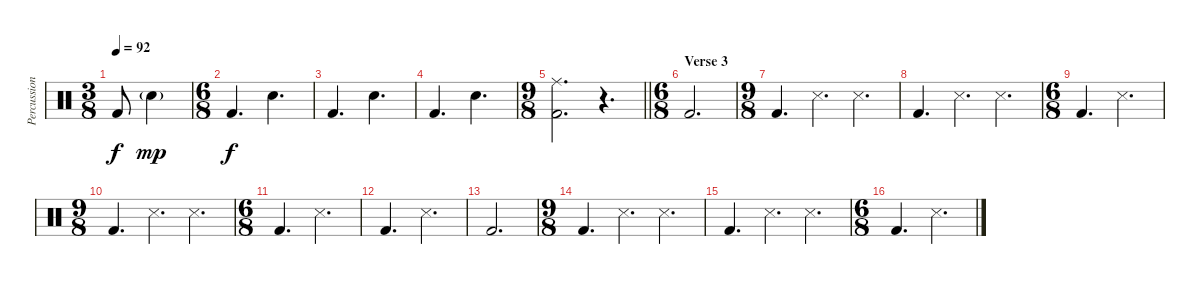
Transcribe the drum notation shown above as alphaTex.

\track ("Percussion" "Percussion") {instrument percussion}
\staff {score}
\articulation defaults
\ts (3 8)
\tempo 92
\clef neutral
\ks c "Kick (hit) 2".8{dy f} "Snare (hit) 2"{g}.4{dy mp}
|
\ts (6 8)
"Kick (hit) 2".4{d dy f} "Snare (hit) 2".4{d} |
"Kick (hit) 2".4{d} "Snare (hit) 2".4{d} |
"Kick (hit) 2".4{d} "Snare (hit) 2".4{d} |
\ts (9 8)
\barLineRight lightlight
("Ride (middle)" "Kick (hit) 2").2{d} r.4{d} |
\ts (6 8)
\section ("" "Verse 3")
"Kick (hit) 2".2{d} |
\ts (9 8)
"Kick (hit) 2".4{d} "Snare (side stick) 3".4{d} "Snare (side stick) 3".4{d} |
"Kick (hit) 2".4{d} "Snare (side stick) 3".4{d} "Snare (side stick) 3".4{d} |
\ts (6 8)
"Kick (hit) 2".4{d} "Snare (side stick) 3".4{d} |
\ts (9 8)
"Kick (hit) 2".4{d} "Snare (side stick) 3".4{d} "Snare (side stick) 3".4{d} |
\ts (6 8)
"Kick (hit) 2".4{d} "Snare (side stick) 3".4{d} |
"Kick (hit) 2".4{d} "Snare (side stick) 3".4{d} |
"Kick (hit) 2".2{d} |
\ts (9 8)
"Kick (hit) 2".4{d} "Snare (side stick) 3".4{d} "Snare (side stick) 3".4{d} |
"Kick (hit) 2".4{d} "Snare (side stick) 3".4{d} "Snare (side stick) 3".4{d} |
\ts (6 8)
"Kick (hit) 2".4{d} "Snare (side stick) 3".4{d}
